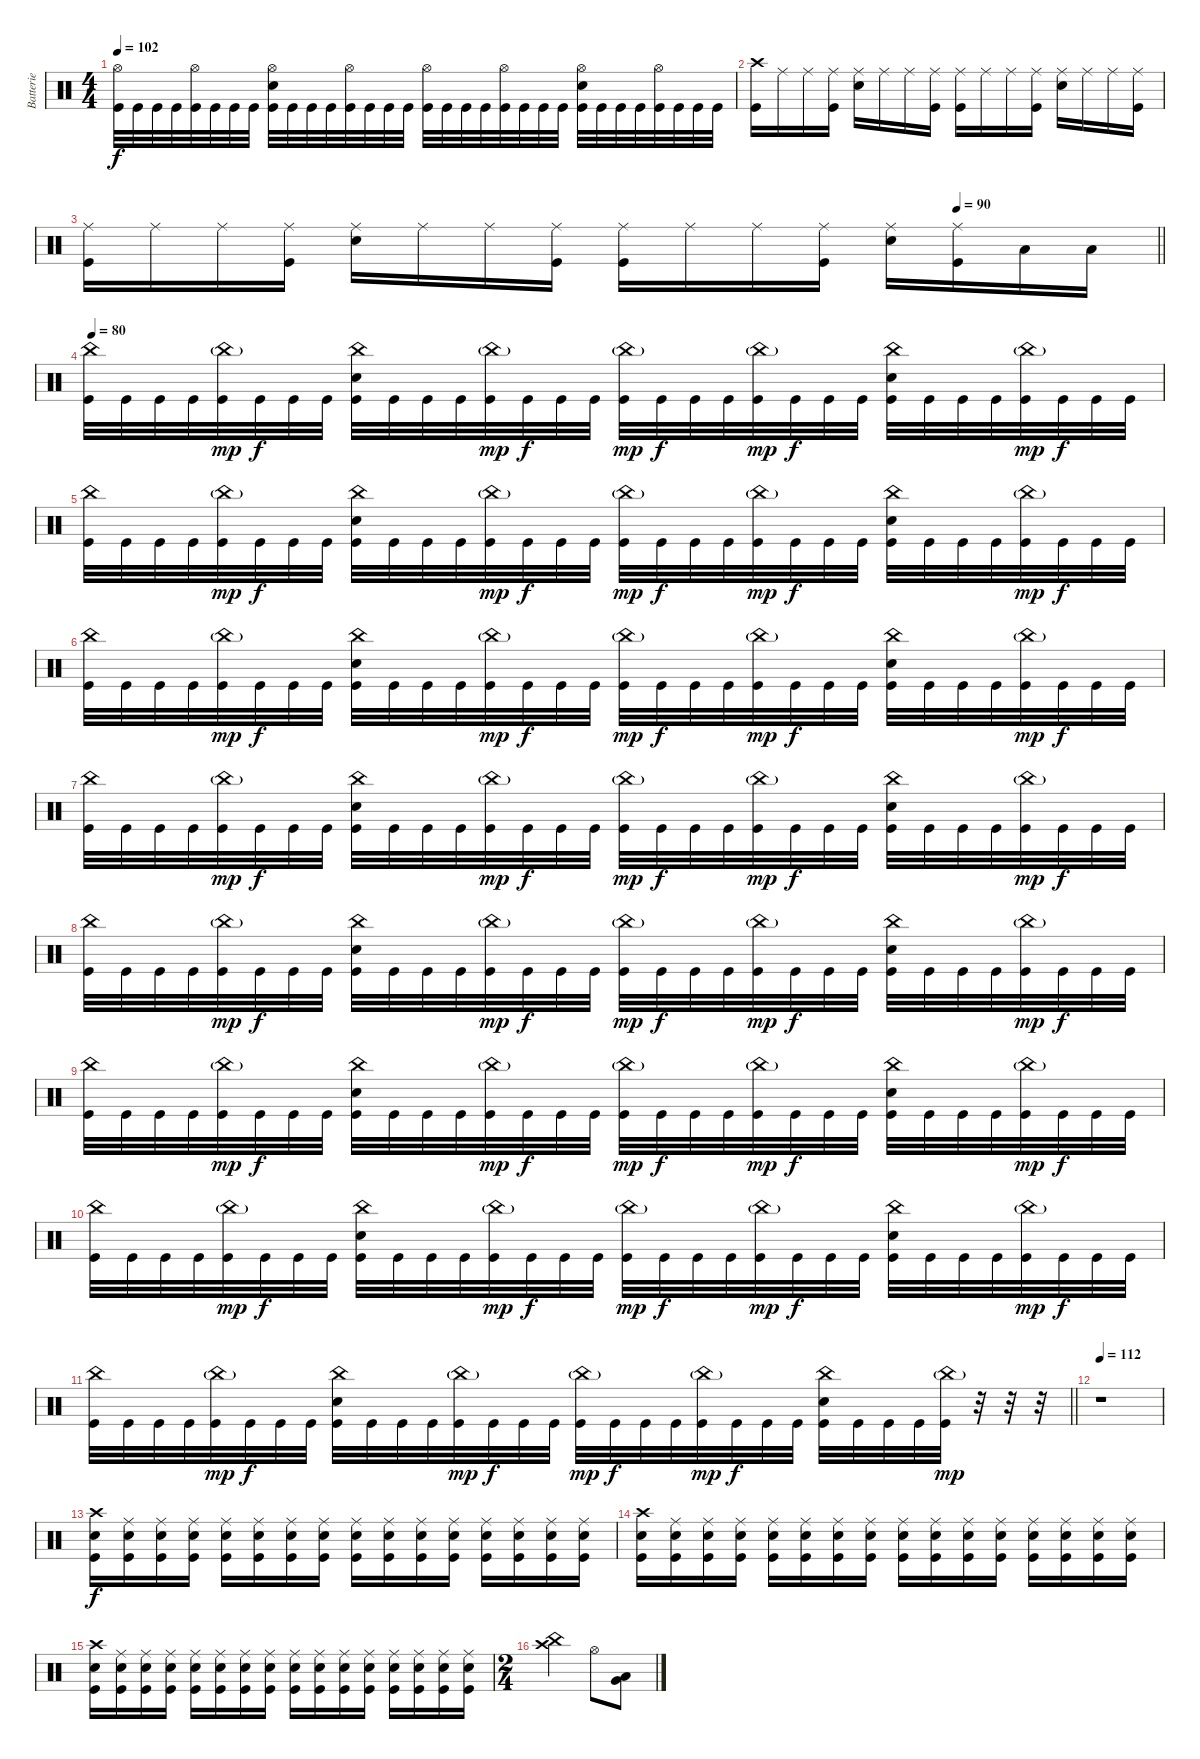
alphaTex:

\track ("Batterie" "Batterie") {instrument percussion}
\staff {score}
\articulation defaults
\ts (4 4)
\tempo 102
\clef neutral
\ks c
("Hi-Hat (open)" "Kick (hit)").32{dy f} "Kick (hit)".32 "Kick (hit)".32 "Kick (hit)".32 ("Hi-Hat (open)" "Kick (hit)").32 "Kick (hit)".32 "Kick (hit)".32 "Kick (hit)".32 ("Hi-Hat (open)" "Electric Snare (hit)" "Kick (hit)").32 "Kick (hit)".32 "Kick (hit)".32 "Kick (hit)".32 ("Hi-Hat (open)" "Kick (hit)").32 "Kick (hit)".32 "Kick (hit)".32 "Kick (hit)".32 ("Hi-Hat (open)" "Kick (hit)").32 "Kick (hit)".32 "Kick (hit)".32 "Kick (hit)".32 ("Hi-Hat (open)" "Kick (hit)").32 "Kick (hit)".32 "Kick (hit)".32 "Kick (hit)".32 ("Hi-Hat (open)" "Electric Snare (hit)" "Kick (hit)").32 "Kick (hit)".32 "Kick (hit)".32 "Kick (hit)".32 ("Hi-Hat (open)" "Kick (hit)").32 "Kick (hit)".32 "Kick (hit)".32 "Kick (hit)".32 |
("Crash high (hit)" "Kick (hit)").16 "Ride (middle)".16 "Ride (middle)".16 ("Ride (middle)" "Kick (hit)").16 ("Ride (middle)" "Electric Snare (hit)").16 "Ride (middle)".16 "Ride (middle)".16 ("Ride (middle)" "Kick (hit)").16 ("Ride (middle)" "Kick (hit)").16 "Ride (middle)".16 "Ride (middle)".16 ("Ride (middle)" "Kick (hit)").16 ("Ride (middle)" "Electric Snare (hit)").16 "Ride (middle)".16 "Ride (middle)".16 ("Ride (middle)" "Kick (hit)").16 |
\tempo (90 0.8125)
\barLineRight lightlight
("Ride (middle)" "Kick (hit)").16 "Ride (middle)".16 "Ride (middle)".16 ("Ride (middle)" "Kick (hit)").16 ("Ride (middle)" "Electric Snare (hit)").16 "Ride (middle)".16 "Ride (middle)".16 ("Ride (middle)" "Kick (hit)").16 ("Ride (middle)" "Kick (hit)").16 "Ride (middle)".16 "Ride (middle)".16 ("Ride (middle)" "Kick (hit)").16 ("Ride (middle)" "Electric Snare (hit)").16 ("Ride (middle)" "Kick (hit)").16 "Low Floor Tom (hit)".16 "Low Floor Tom (hit)".16 |
\tempo 80
("China (hit)" "Kick (hit)").32 "Kick (hit)".32 "Kick (hit)".32 "Kick (hit)".32 ("China (hit)"{g} "Kick (hit)").32{dy mp} "Kick (hit)".32{dy f} "Kick (hit)".32 "Kick (hit)".32 ("China (hit)" "Electric Snare (hit)" "Kick (hit)").32 "Kick (hit)".32 "Kick (hit)".32 "Kick (hit)".32 ("China (hit)"{g} "Kick (hit)").32{dy mp} "Kick (hit)".32{dy f} "Kick (hit)".32 "Kick (hit)".32 ("China (hit)"{g} "Kick (hit)").32{dy mp} "Kick (hit)".32{dy f} "Kick (hit)".32 "Kick (hit)".32 ("China (hit)"{g} "Kick (hit)").32{dy mp} "Kick (hit)".32{dy f} "Kick (hit)".32 "Kick (hit)".32 ("China (hit)" "Electric Snare (hit)" "Kick (hit)").32 "Kick (hit)".32 "Kick (hit)".32 "Kick (hit)".32 ("China (hit)"{g} "Kick (hit)").32{dy mp} "Kick (hit)".32{dy f} "Kick (hit)".32 "Kick (hit)".32 |
("China (hit)" "Kick (hit)").32 "Kick (hit)".32 "Kick (hit)".32 "Kick (hit)".32 ("China (hit)"{g} "Kick (hit)").32{dy mp} "Kick (hit)".32{dy f} "Kick (hit)".32 "Kick (hit)".32 ("China (hit)" "Electric Snare (hit)" "Kick (hit)").32 "Kick (hit)".32 "Kick (hit)".32 "Kick (hit)".32 ("China (hit)"{g} "Kick (hit)").32{dy mp} "Kick (hit)".32{dy f} "Kick (hit)".32 "Kick (hit)".32 ("China (hit)"{g} "Kick (hit)").32{dy mp} "Kick (hit)".32{dy f} "Kick (hit)".32 "Kick (hit)".32 ("China (hit)"{g} "Kick (hit)").32{dy mp} "Kick (hit)".32{dy f} "Kick (hit)".32 "Kick (hit)".32 ("China (hit)" "Electric Snare (hit)" "Kick (hit)").32 "Kick (hit)".32 "Kick (hit)".32 "Kick (hit)".32 ("China (hit)"{g} "Kick (hit)").32{dy mp} "Kick (hit)".32{dy f} "Kick (hit)".32 "Kick (hit)".32 |
("China (hit)" "Kick (hit)").32 "Kick (hit)".32 "Kick (hit)".32 "Kick (hit)".32 ("China (hit)"{g} "Kick (hit)").32{dy mp} "Kick (hit)".32{dy f} "Kick (hit)".32 "Kick (hit)".32 ("China (hit)" "Electric Snare (hit)" "Kick (hit)").32 "Kick (hit)".32 "Kick (hit)".32 "Kick (hit)".32 ("China (hit)"{g} "Kick (hit)").32{dy mp} "Kick (hit)".32{dy f} "Kick (hit)".32 "Kick (hit)".32 ("China (hit)"{g} "Kick (hit)").32{dy mp} "Kick (hit)".32{dy f} "Kick (hit)".32 "Kick (hit)".32 ("China (hit)"{g} "Kick (hit)").32{dy mp} "Kick (hit)".32{dy f} "Kick (hit)".32 "Kick (hit)".32 ("China (hit)" "Electric Snare (hit)" "Kick (hit)").32 "Kick (hit)".32 "Kick (hit)".32 "Kick (hit)".32 ("China (hit)"{g} "Kick (hit)").32{dy mp} "Kick (hit)".32{dy f} "Kick (hit)".32 "Kick (hit)".32 |
("China (hit)" "Kick (hit)").32 "Kick (hit)".32 "Kick (hit)".32 "Kick (hit)".32 ("China (hit)"{g} "Kick (hit)").32{dy mp} "Kick (hit)".32{dy f} "Kick (hit)".32 "Kick (hit)".32 ("China (hit)" "Electric Snare (hit)" "Kick (hit)").32 "Kick (hit)".32 "Kick (hit)".32 "Kick (hit)".32 ("China (hit)"{g} "Kick (hit)").32{dy mp} "Kick (hit)".32{dy f} "Kick (hit)".32 "Kick (hit)".32 ("China (hit)"{g} "Kick (hit)").32{dy mp} "Kick (hit)".32{dy f} "Kick (hit)".32 "Kick (hit)".32 ("China (hit)"{g} "Kick (hit)").32{dy mp} "Kick (hit)".32{dy f} "Kick (hit)".32 "Kick (hit)".32 ("China (hit)" "Electric Snare (hit)" "Kick (hit)").32 "Kick (hit)".32 "Kick (hit)".32 "Kick (hit)".32 ("China (hit)"{g} "Kick (hit)").32{dy mp} "Kick (hit)".32{dy f} "Kick (hit)".32 "Kick (hit)".32 |
("China (hit)" "Kick (hit)").32 "Kick (hit)".32 "Kick (hit)".32 "Kick (hit)".32 ("China (hit)"{g} "Kick (hit)").32{dy mp} "Kick (hit)".32{dy f} "Kick (hit)".32 "Kick (hit)".32 ("China (hit)" "Electric Snare (hit)" "Kick (hit)").32 "Kick (hit)".32 "Kick (hit)".32 "Kick (hit)".32 ("China (hit)"{g} "Kick (hit)").32{dy mp} "Kick (hit)".32{dy f} "Kick (hit)".32 "Kick (hit)".32 ("China (hit)"{g} "Kick (hit)").32{dy mp} "Kick (hit)".32{dy f} "Kick (hit)".32 "Kick (hit)".32 ("China (hit)"{g} "Kick (hit)").32{dy mp} "Kick (hit)".32{dy f} "Kick (hit)".32 "Kick (hit)".32 ("China (hit)" "Electric Snare (hit)" "Kick (hit)").32 "Kick (hit)".32 "Kick (hit)".32 "Kick (hit)".32 ("China (hit)"{g} "Kick (hit)").32{dy mp} "Kick (hit)".32{dy f} "Kick (hit)".32 "Kick (hit)".32 |
("China (hit)" "Kick (hit)").32 "Kick (hit)".32 "Kick (hit)".32 "Kick (hit)".32 ("China (hit)"{g} "Kick (hit)").32{dy mp} "Kick (hit)".32{dy f} "Kick (hit)".32 "Kick (hit)".32 ("China (hit)" "Electric Snare (hit)" "Kick (hit)").32 "Kick (hit)".32 "Kick (hit)".32 "Kick (hit)".32 ("China (hit)"{g} "Kick (hit)").32{dy mp} "Kick (hit)".32{dy f} "Kick (hit)".32 "Kick (hit)".32 ("China (hit)"{g} "Kick (hit)").32{dy mp} "Kick (hit)".32{dy f} "Kick (hit)".32 "Kick (hit)".32 ("China (hit)"{g} "Kick (hit)").32{dy mp} "Kick (hit)".32{dy f} "Kick (hit)".32 "Kick (hit)".32 ("China (hit)" "Electric Snare (hit)" "Kick (hit)").32 "Kick (hit)".32 "Kick (hit)".32 "Kick (hit)".32 ("China (hit)"{g} "Kick (hit)").32{dy mp} "Kick (hit)".32{dy f} "Kick (hit)".32 "Kick (hit)".32 |
("China (hit)" "Kick (hit)").32 "Kick (hit)".32 "Kick (hit)".32 "Kick (hit)".32 ("China (hit)"{g} "Kick (hit)").32{dy mp} "Kick (hit)".32{dy f} "Kick (hit)".32 "Kick (hit)".32 ("China (hit)" "Electric Snare (hit)" "Kick (hit)").32 "Kick (hit)".32 "Kick (hit)".32 "Kick (hit)".32 ("China (hit)"{g} "Kick (hit)").32{dy mp} "Kick (hit)".32{dy f} "Kick (hit)".32 "Kick (hit)".32 ("China (hit)"{g} "Kick (hit)").32{dy mp} "Kick (hit)".32{dy f} "Kick (hit)".32 "Kick (hit)".32 ("China (hit)"{g} "Kick (hit)").32{dy mp} "Kick (hit)".32{dy f} "Kick (hit)".32 "Kick (hit)".32 ("China (hit)" "Electric Snare (hit)" "Kick (hit)").32 "Kick (hit)".32 "Kick (hit)".32 "Kick (hit)".32 ("China (hit)"{g} "Kick (hit)").32{dy mp} "Kick (hit)".32{dy f} "Kick (hit)".32 "Kick (hit)".32 |
\barLineRight lightlight
("China (hit)" "Kick (hit)").32 "Kick (hit)".32 "Kick (hit)".32 "Kick (hit)".32 ("China (hit)"{g} "Kick (hit)").32{dy mp} "Kick (hit)".32{dy f} "Kick (hit)".32 "Kick (hit)".32 ("China (hit)" "Electric Snare (hit)" "Kick (hit)").32 "Kick (hit)".32 "Kick (hit)".32 "Kick (hit)".32 ("China (hit)"{g} "Kick (hit)").32{dy mp} "Kick (hit)".32{dy f} "Kick (hit)".32 "Kick (hit)".32 ("China (hit)"{g} "Kick (hit)").32{dy mp} "Kick (hit)".32{dy f} "Kick (hit)".32 "Kick (hit)".32 ("China (hit)"{g} "Kick (hit)").32{dy mp} "Kick (hit)".32{dy f} "Kick (hit)".32 "Kick (hit)".32 ("China (hit)" "Electric Snare (hit)" "Kick (hit)").32 "Kick (hit)".32 "Kick (hit)".32 "Kick (hit)".32 ("China (hit)"{g} "Kick (hit)").32{dy mp} r.32 r.32 r.32 |
\tempo 112
r.1 |
("Crash high (hit)" "Electric Snare (hit)" "Kick (hit)").16{dy f} ("Ride (middle)" "Electric Snare (hit)" "Kick (hit)").16 ("Ride (middle)" "Electric Snare (hit)" "Kick (hit)").16 ("Ride (middle)" "Electric Snare (hit)" "Kick (hit)").16 ("Ride (middle)" "Electric Snare (hit)" "Kick (hit)").16 ("Ride (middle)" "Electric Snare (hit)" "Kick (hit)").16 ("Ride (middle)" "Electric Snare (hit)" "Kick (hit)").16 ("Ride (middle)" "Electric Snare (hit)" "Kick (hit)").16 ("Ride (middle)" "Electric Snare (hit)" "Kick (hit)").16 ("Ride (middle)" "Electric Snare (hit)" "Kick (hit)").16 ("Ride (middle)" "Electric Snare (hit)" "Kick (hit)").16 ("Ride (middle)" "Electric Snare (hit)" "Kick (hit)").16 ("Ride (middle)" "Electric Snare (hit)" "Kick (hit)").16 ("Ride (middle)" "Electric Snare (hit)" "Kick (hit)").16 ("Ride (middle)" "Electric Snare (hit)" "Kick (hit)").16 ("Ride (middle)" "Electric Snare (hit)" "Kick (hit)").16 |
("Crash high (hit)" "Electric Snare (hit)" "Kick (hit)").16 ("Ride (middle)" "Electric Snare (hit)" "Kick (hit)").16 ("Ride (middle)" "Electric Snare (hit)" "Kick (hit)").16 ("Ride (middle)" "Electric Snare (hit)" "Kick (hit)").16 ("Ride (middle)" "Electric Snare (hit)" "Kick (hit)").16 ("Ride (middle)" "Electric Snare (hit)" "Kick (hit)").16 ("Ride (middle)" "Electric Snare (hit)" "Kick (hit)").16 ("Ride (middle)" "Electric Snare (hit)" "Kick (hit)").16 ("Ride (middle)" "Electric Snare (hit)" "Kick (hit)").16 ("Ride (middle)" "Electric Snare (hit)" "Kick (hit)").16 ("Ride (middle)" "Electric Snare (hit)" "Kick (hit)").16 ("Ride (middle)" "Electric Snare (hit)" "Kick (hit)").16 ("Ride (middle)" "Electric Snare (hit)" "Kick (hit)").16 ("Ride (middle)" "Electric Snare (hit)" "Kick (hit)").16 ("Ride (middle)" "Electric Snare (hit)" "Kick (hit)").16 ("Ride (middle)" "Electric Snare (hit)" "Kick (hit)").16 |
("Crash high (hit)" "Electric Snare (hit)" "Kick (hit)").16 ("Ride (middle)" "Electric Snare (hit)" "Kick (hit)").16 ("Ride (middle)" "Electric Snare (hit)" "Kick (hit)").16 ("Ride (middle)" "Electric Snare (hit)" "Kick (hit)").16 ("Ride (middle)" "Electric Snare (hit)" "Kick (hit)").16 ("Ride (middle)" "Electric Snare (hit)" "Kick (hit)").16 ("Ride (middle)" "Electric Snare (hit)" "Kick (hit)").16 ("Ride (middle)" "Electric Snare (hit)" "Kick (hit)").16 ("Ride (middle)" "Electric Snare (hit)" "Kick (hit)").16 ("Ride (middle)" "Electric Snare (hit)" "Kick (hit)").16 ("Ride (middle)" "Electric Snare (hit)" "Kick (hit)").16 ("Ride (middle)" "Electric Snare (hit)" "Kick (hit)").16 ("Ride (middle)" "Electric Snare (hit)" "Kick (hit)").16 ("Ride (middle)" "Electric Snare (hit)" "Kick (hit)").16 ("Ride (middle)" "Electric Snare (hit)" "Kick (hit)").16 ("Ride (middle)" "Electric Snare (hit)" "Kick (hit)").16 |
\ts (2 4)
("China (hit)" "Crash high (hit)").4 "Hi-Hat (open)".8 ("Very Low Tom (hit)" "Low Floor Tom (hit)").8
